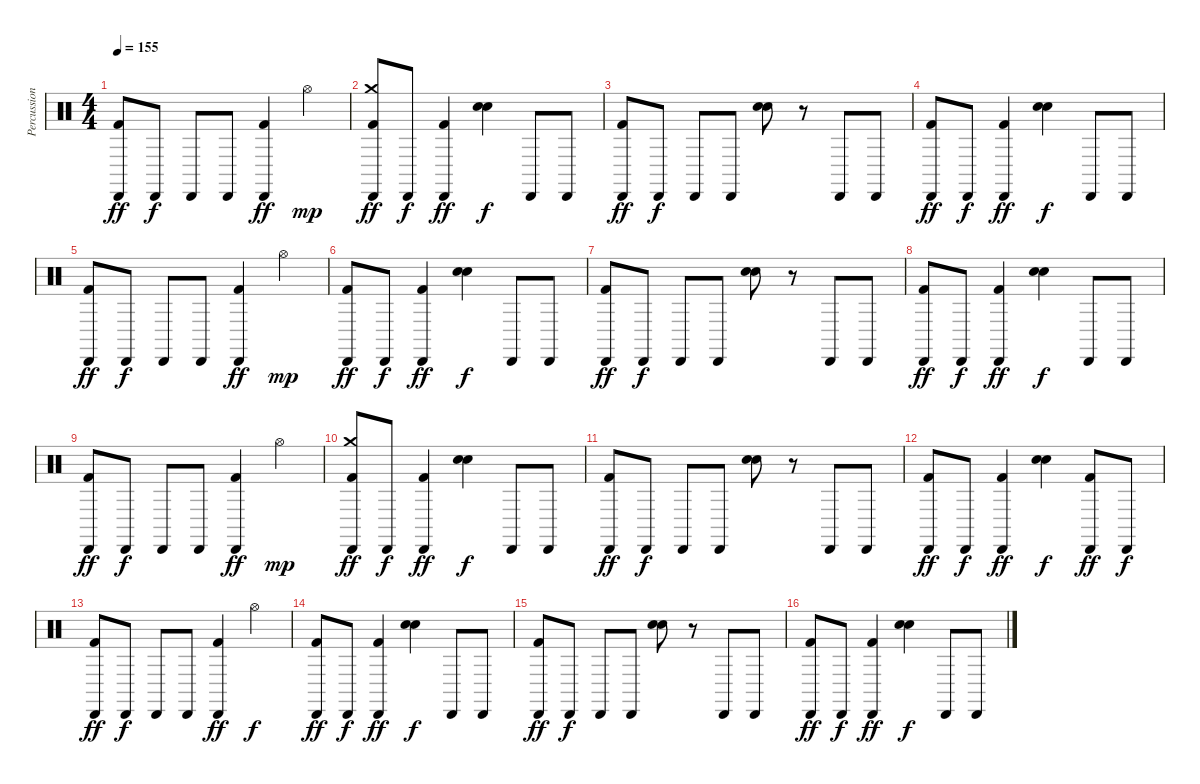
\track ("Percussion" "Percussion") {instrument percussion}
\staff {score}
\articulation defaults
\ts (4 4)
\tempo 155
\clef neutral
\ks c
("Cabasa (hit)" "Kick (hit) 2").8{dy ff} "Cabasa (hit)".8{dy f} "Cabasa (hit)".8 "Cabasa (hit)".8 ("Cabasa (hit)" "Kick (hit) 2").4{dy ff} "Hi-Hat (open)".4{dy mp} |
("Cabasa (hit)" "Kick (hit) 2" "Crash medium (hit)").8{dy ff} "Cabasa (hit)".8{dy f} ("Cabasa (hit)" "Kick (hit) 2").4{dy ff} ("Electric Snare (hit)" "Hand Clap (hit)").4{dy f} "Cabasa (hit)".8 "Cabasa (hit)".8 |
("Cabasa (hit)" "Kick (hit) 2").8{dy ff} "Cabasa (hit)".8{dy f} "Cabasa (hit)".8 "Cabasa (hit)".8 ("Electric Snare (hit)" "Hand Clap (hit)").8 r.8 "Cabasa (hit)".8 "Cabasa (hit)".8 |
("Cabasa (hit)" "Kick (hit) 2").8{dy ff} "Cabasa (hit)".8{dy f} ("Cabasa (hit)" "Kick (hit) 2").4{dy ff} ("Electric Snare (hit)" "Hand Clap (hit)").4{dy f} "Cabasa (hit)".8 "Cabasa (hit)".8 |
("Cabasa (hit)" "Kick (hit) 2").8{dy ff} "Cabasa (hit)".8{dy f} "Cabasa (hit)".8 "Cabasa (hit)".8 ("Cabasa (hit)" "Kick (hit) 2").4{dy ff} "Hi-Hat (open)".4{dy mp} |
("Cabasa (hit)" "Kick (hit) 2").8{dy ff} "Cabasa (hit)".8{dy f} ("Cabasa (hit)" "Kick (hit) 2").4{dy ff} ("Electric Snare (hit)" "Hand Clap (hit)").4{dy f} "Cabasa (hit)".8 "Cabasa (hit)".8 |
("Cabasa (hit)" "Kick (hit) 2").8{dy ff} "Cabasa (hit)".8{dy f} "Cabasa (hit)".8 "Cabasa (hit)".8 ("Electric Snare (hit)" "Hand Clap (hit)").8 r.8 "Cabasa (hit)".8 "Cabasa (hit)".8 |
("Cabasa (hit)" "Kick (hit) 2").8{dy ff} "Cabasa (hit)".8{dy f} ("Cabasa (hit)" "Kick (hit) 2").4{dy ff} ("Electric Snare (hit)" "Hand Clap (hit)").4{dy f} "Cabasa (hit)".8 "Cabasa (hit)".8 |
("Cabasa (hit)" "Kick (hit) 2").8{dy ff} "Cabasa (hit)".8{dy f} "Cabasa (hit)".8 "Cabasa (hit)".8 ("Cabasa (hit)" "Kick (hit) 2").4{dy ff} "Hi-Hat (open)".4{dy mp} |
("Cabasa (hit)" "Kick (hit) 2" "Crash medium (hit)").8{dy ff} "Cabasa (hit)".8{dy f} ("Cabasa (hit)" "Kick (hit) 2").4{dy ff} ("Electric Snare (hit)" "Hand Clap (hit)").4{dy f} "Cabasa (hit)".8 "Cabasa (hit)".8 |
("Cabasa (hit)" "Kick (hit) 2").8{dy ff} "Cabasa (hit)".8{dy f} "Cabasa (hit)".8 "Cabasa (hit)".8 ("Electric Snare (hit)" "Hand Clap (hit)").8 r.8 "Cabasa (hit)".8 "Cabasa (hit)".8 |
("Cabasa (hit)" "Kick (hit) 2").8{dy ff} "Cabasa (hit)".8{dy f} ("Cabasa (hit)" "Kick (hit) 2").4{dy ff} ("Electric Snare (hit)" "Hand Clap (hit)").4{dy f} ("Cabasa (hit)" "Kick (hit) 2").8{dy ff} "Cabasa (hit)".8{dy f} |
("Cabasa (hit)" "Kick (hit) 2").8{dy ff} "Cabasa (hit)".8{dy f} "Cabasa (hit)".8 "Cabasa (hit)".8 ("Cabasa (hit)" "Kick (hit) 2").4{dy ff} "Hi-Hat (open)".4{dy f} |
("Cabasa (hit)" "Kick (hit) 2").8{dy ff} "Cabasa (hit)".8{dy f} ("Cabasa (hit)" "Kick (hit) 2").4{dy ff} ("Electric Snare (hit)" "Hand Clap (hit)").4{dy f} "Cabasa (hit)".8 "Cabasa (hit)".8 |
("Cabasa (hit)" "Kick (hit) 2").8{dy ff} "Cabasa (hit)".8{dy f} "Cabasa (hit)".8 "Cabasa (hit)".8 ("Electric Snare (hit)" "Hand Clap (hit)").8 r.8 "Cabasa (hit)".8 "Cabasa (hit)".8 |
("Cabasa (hit)" "Kick (hit) 2").8{dy ff} "Cabasa (hit)".8{dy f} ("Cabasa (hit)" "Kick (hit) 2").4{dy ff} ("Electric Snare (hit)" "Hand Clap (hit)").4{dy f} "Cabasa (hit)".8 "Cabasa (hit)".8
